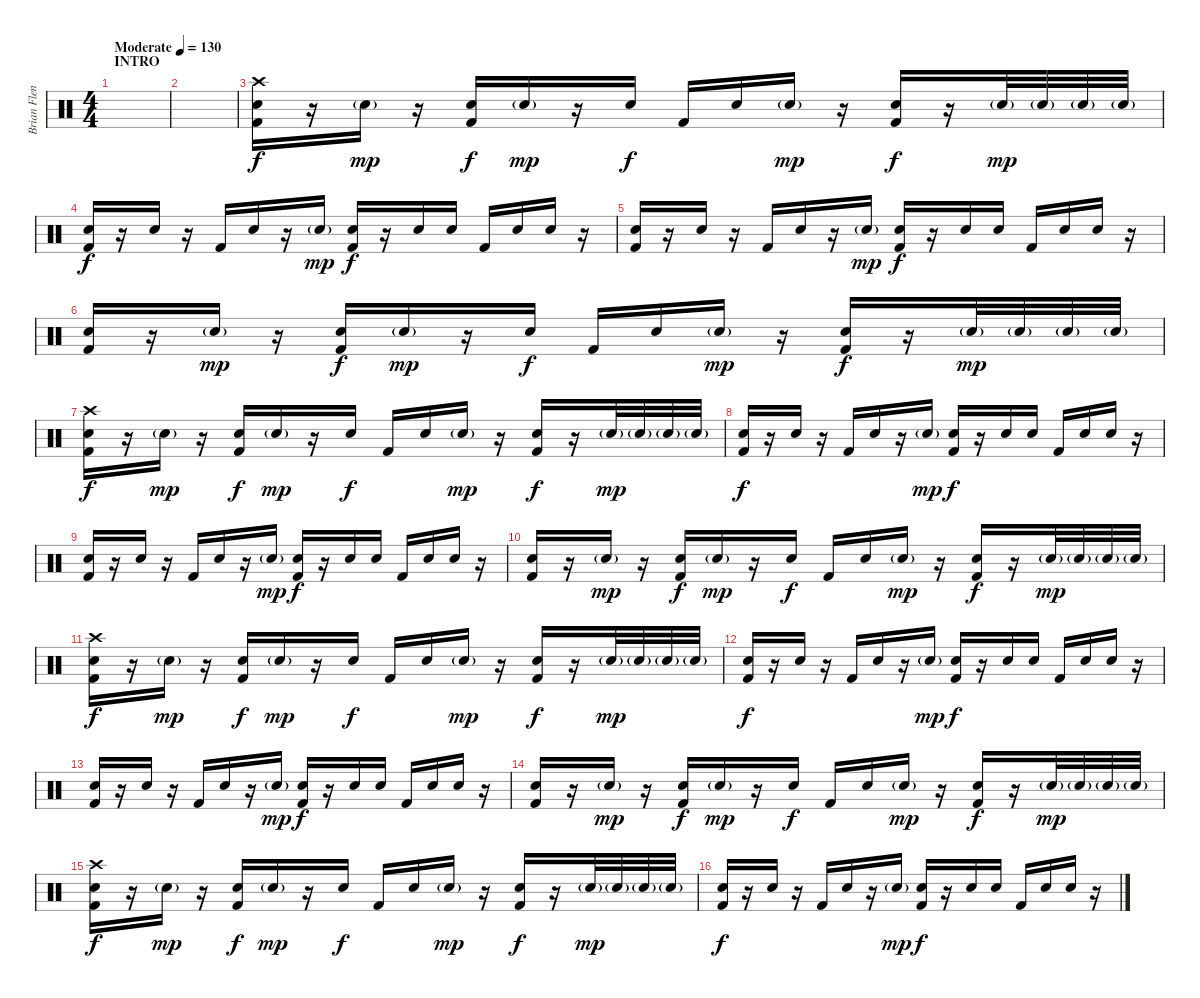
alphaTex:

\track ("Brian Flenniken" "Brian Flen") {instrument percussion}
\staff {score}
\articulation defaults
\ts (4 4)
\section ("" "INTRO")
\tempo (130 "Moderate")
\clef neutral
\ks c
|
|
("Crash high (hit)" "Snare (hit) 2" "Kick (hit) 2").16 r.16 "Snare (hit) 2"{g}.16{dy mp} r.16 ("Snare (hit) 2" "Kick (hit) 2").16{dy f} "Snare (hit) 2"{g}.16{dy mp} r.16 "Snare (hit) 2".16{dy f} "Kick (hit) 2".16 "Snare (hit) 2".16 "Snare (hit) 2"{g}.16{dy mp} r.16 ("Snare (hit) 2" "Kick (hit) 2").16{dy f} r.16 "Snare (hit) 2"{g}.32{dy mp} "Snare (hit) 2"{g}.32 "Snare (hit) 2"{g}.32 "Snare (hit) 2"{g}.32 |
("Snare (hit) 2" "Kick (hit) 2").16{dy f} r.16 "Snare (hit) 2".16 r.16 "Kick (hit) 2".16 "Snare (hit) 2".16 r.16 "Snare (hit) 2"{g}.16{dy mp} ("Snare (hit) 2" "Kick (hit) 2").16{dy f} r.16 "Snare (hit) 2".16 "Snare (hit) 2".16 "Kick (hit) 2".16 "Snare (hit) 2".16 "Snare (hit) 2".16 r.16 |
("Snare (hit) 2" "Kick (hit) 2").16 r.16 "Snare (hit) 2".16 r.16 "Kick (hit) 2".16 "Snare (hit) 2".16 r.16 "Snare (hit) 2"{g}.16{dy mp} ("Snare (hit) 2" "Kick (hit) 2").16{dy f} r.16 "Snare (hit) 2".16 "Snare (hit) 2".16 "Kick (hit) 2".16 "Snare (hit) 2".16 "Snare (hit) 2".16 r.16 |
("Snare (hit) 2" "Kick (hit) 2").16 r.16 "Snare (hit) 2"{g}.16{dy mp} r.16 ("Snare (hit) 2" "Kick (hit) 2").16{dy f} "Snare (hit) 2"{g}.16{dy mp} r.16 "Snare (hit) 2".16{dy f} "Kick (hit) 2".16 "Snare (hit) 2".16 "Snare (hit) 2"{g}.16{dy mp} r.16 ("Snare (hit) 2" "Kick (hit) 2").16{dy f} r.16 "Snare (hit) 2"{g}.32{dy mp} "Snare (hit) 2"{g}.32 "Snare (hit) 2"{g}.32 "Snare (hit) 2"{g}.32 |
("Crash high (hit)" "Snare (hit) 2" "Kick (hit) 2").16{dy f} r.16 "Snare (hit) 2"{g}.16{dy mp} r.16 ("Snare (hit) 2" "Kick (hit) 2").16{dy f} "Snare (hit) 2"{g}.16{dy mp} r.16 "Snare (hit) 2".16{dy f} "Kick (hit) 2".16 "Snare (hit) 2".16 "Snare (hit) 2"{g}.16{dy mp} r.16 ("Snare (hit) 2" "Kick (hit) 2").16{dy f} r.16 "Snare (hit) 2"{g}.32{dy mp} "Snare (hit) 2"{g}.32 "Snare (hit) 2"{g}.32 "Snare (hit) 2"{g}.32 |
("Snare (hit) 2" "Kick (hit) 2").16{dy f} r.16 "Snare (hit) 2".16 r.16 "Kick (hit) 2".16 "Snare (hit) 2".16 r.16 "Snare (hit) 2"{g}.16{dy mp} ("Snare (hit) 2" "Kick (hit) 2").16{dy f} r.16 "Snare (hit) 2".16 "Snare (hit) 2".16 "Kick (hit) 2".16 "Snare (hit) 2".16 "Snare (hit) 2".16 r.16 |
("Snare (hit) 2" "Kick (hit) 2").16 r.16 "Snare (hit) 2".16 r.16 "Kick (hit) 2".16 "Snare (hit) 2".16 r.16 "Snare (hit) 2"{g}.16{dy mp} ("Snare (hit) 2" "Kick (hit) 2").16{dy f} r.16 "Snare (hit) 2".16 "Snare (hit) 2".16 "Kick (hit) 2".16 "Snare (hit) 2".16 "Snare (hit) 2".16 r.16 |
("Snare (hit) 2" "Kick (hit) 2").16 r.16 "Snare (hit) 2"{g}.16{dy mp} r.16 ("Snare (hit) 2" "Kick (hit) 2").16{dy f} "Snare (hit) 2"{g}.16{dy mp} r.16 "Snare (hit) 2".16{dy f} "Kick (hit) 2".16 "Snare (hit) 2".16 "Snare (hit) 2"{g}.16{dy mp} r.16 ("Snare (hit) 2" "Kick (hit) 2").16{dy f} r.16 "Snare (hit) 2"{g}.32{dy mp} "Snare (hit) 2"{g}.32 "Snare (hit) 2"{g}.32 "Snare (hit) 2"{g}.32 |
("Crash high (hit)" "Snare (hit) 2" "Kick (hit) 2").16{dy f} r.16 "Snare (hit) 2"{g}.16{dy mp} r.16 ("Snare (hit) 2" "Kick (hit) 2").16{dy f} "Snare (hit) 2"{g}.16{dy mp} r.16 "Snare (hit) 2".16{dy f} "Kick (hit) 2".16 "Snare (hit) 2".16 "Snare (hit) 2"{g}.16{dy mp} r.16 ("Snare (hit) 2" "Kick (hit) 2").16{dy f} r.16 "Snare (hit) 2"{g}.32{dy mp} "Snare (hit) 2"{g}.32 "Snare (hit) 2"{g}.32 "Snare (hit) 2"{g}.32 |
("Snare (hit) 2" "Kick (hit) 2").16{dy f} r.16 "Snare (hit) 2".16 r.16 "Kick (hit) 2".16 "Snare (hit) 2".16 r.16 "Snare (hit) 2"{g}.16{dy mp} ("Snare (hit) 2" "Kick (hit) 2").16{dy f} r.16 "Snare (hit) 2".16 "Snare (hit) 2".16 "Kick (hit) 2".16 "Snare (hit) 2".16 "Snare (hit) 2".16 r.16 |
("Snare (hit) 2" "Kick (hit) 2").16 r.16 "Snare (hit) 2".16 r.16 "Kick (hit) 2".16 "Snare (hit) 2".16 r.16 "Snare (hit) 2"{g}.16{dy mp} ("Snare (hit) 2" "Kick (hit) 2").16{dy f} r.16 "Snare (hit) 2".16 "Snare (hit) 2".16 "Kick (hit) 2".16 "Snare (hit) 2".16 "Snare (hit) 2".16 r.16 |
("Snare (hit) 2" "Kick (hit) 2").16 r.16 "Snare (hit) 2"{g}.16{dy mp} r.16 ("Snare (hit) 2" "Kick (hit) 2").16{dy f} "Snare (hit) 2"{g}.16{dy mp} r.16 "Snare (hit) 2".16{dy f} "Kick (hit) 2".16 "Snare (hit) 2".16 "Snare (hit) 2"{g}.16{dy mp} r.16 ("Snare (hit) 2" "Kick (hit) 2").16{dy f} r.16 "Snare (hit) 2"{g}.32{dy mp} "Snare (hit) 2"{g}.32 "Snare (hit) 2"{g}.32 "Snare (hit) 2"{g}.32 |
("Crash high (hit)" "Snare (hit) 2" "Kick (hit) 2").16{dy f} r.16 "Snare (hit) 2"{g}.16{dy mp} r.16 ("Snare (hit) 2" "Kick (hit) 2").16{dy f} "Snare (hit) 2"{g}.16{dy mp} r.16 "Snare (hit) 2".16{dy f} "Kick (hit) 2".16 "Snare (hit) 2".16 "Snare (hit) 2"{g}.16{dy mp} r.16 ("Snare (hit) 2" "Kick (hit) 2").16{dy f} r.16 "Snare (hit) 2"{g}.32{dy mp} "Snare (hit) 2"{g}.32 "Snare (hit) 2"{g}.32 "Snare (hit) 2"{g}.32 |
("Snare (hit) 2" "Kick (hit) 2").16{dy f} r.16 "Snare (hit) 2".16 r.16 "Kick (hit) 2".16 "Snare (hit) 2".16 r.16 "Snare (hit) 2"{g}.16{dy mp} ("Snare (hit) 2" "Kick (hit) 2").16{dy f} r.16 "Snare (hit) 2".16 "Snare (hit) 2".16 "Kick (hit) 2".16 "Snare (hit) 2".16 "Snare (hit) 2".16 r.16
